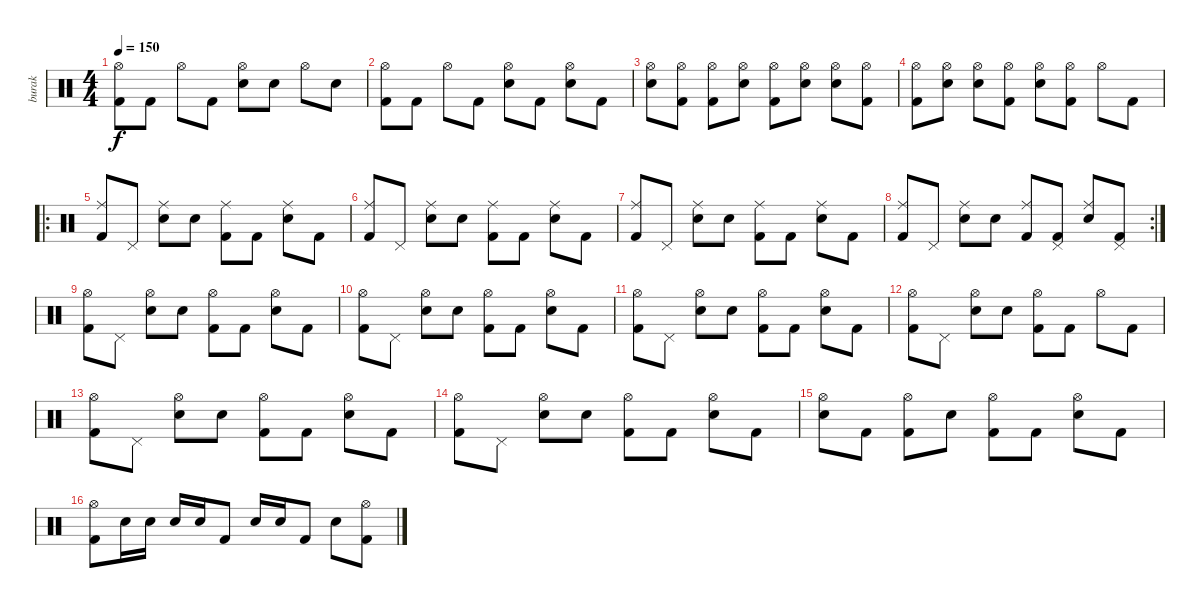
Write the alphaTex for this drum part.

\track ("burak" "burak") {instrument percussion}
\staff {score}
\articulation defaults
\ts (4 4)
\tempo 150
\clef neutral
\ks c
("Hi-Hat (open)" "Kick (hit) 2").8{dy f} "Kick (hit) 2".8 "Hi-Hat (open)".8 "Kick (hit) 2".8 ("Hi-Hat (open)" "Electric Snare (hit)").8 "Electric Snare (hit)".8 "Hi-Hat (open)".8 "Electric Snare (hit)".8 |
("Hi-Hat (open)" "Kick (hit) 2").8 "Kick (hit) 2".8 "Hi-Hat (open)".8 "Kick (hit) 2".8 ("Hi-Hat (open)" "Electric Snare (hit)").8 "Kick (hit) 2".8 ("Hi-Hat (open)" "Electric Snare (hit)").8 "Kick (hit) 2".8 |
("Hi-Hat (open)" "Electric Snare (hit)").8 ("Hi-Hat (open)" "Kick (hit) 2").8 ("Hi-Hat (open)" "Kick (hit) 2").8 ("Hi-Hat (open)" "Electric Snare (hit)").8 ("Hi-Hat (open)" "Kick (hit) 2").8 ("Hi-Hat (open)" "Electric Snare (hit)").8 ("Hi-Hat (open)" "Electric Snare (hit)").8 ("Hi-Hat (open)" "Kick (hit) 2").8 |
("Hi-Hat (open)" "Kick (hit) 2").8 ("Hi-Hat (open)" "Electric Snare (hit)").8 ("Hi-Hat (open)" "Electric Snare (hit)").8 ("Hi-Hat (open)" "Kick (hit) 2").8 ("Hi-Hat (open)" "Electric Snare (hit)").8 ("Hi-Hat (open)" "Kick (hit) 2").8 "Hi-Hat (open)".8 "Kick (hit) 2".8 |
\ro
("Ride (middle)" "Kick (hit) 2").8 "Pedal Hi-Hat (hit)".8 ("Ride (middle)" "Electric Snare (hit)").8 "Electric Snare (hit)".8 ("Ride (middle)" "Kick (hit) 2").8 "Kick (hit) 2".8 ("Ride (middle)" "Electric Snare (hit)").8 "Kick (hit) 2".8 |
("Ride (middle)" "Kick (hit) 2").8 "Pedal Hi-Hat (hit)".8 ("Ride (middle)" "Electric Snare (hit)").8 "Electric Snare (hit)".8 ("Ride (middle)" "Kick (hit) 2").8 "Kick (hit) 2".8 ("Ride (middle)" "Electric Snare (hit)").8 "Kick (hit) 2".8 |
("Ride (middle)" "Kick (hit) 2").8 "Pedal Hi-Hat (hit)".8 ("Ride (middle)" "Electric Snare (hit)").8 "Electric Snare (hit)".8 ("Ride (middle)" "Kick (hit) 2").8 "Kick (hit) 2".8 ("Ride (middle)" "Electric Snare (hit)").8 "Kick (hit) 2".8 |
\rc 2
("Ride (middle)" "Kick (hit) 2").8 "Pedal Hi-Hat (hit)".8 ("Ride (middle)" "Electric Snare (hit)").8 "Electric Snare (hit)".8 ("Ride (middle)" "Kick (hit) 2").8 ("Pedal Hi-Hat (hit)" "Kick (hit) 2").8 ("Ride (middle)" "Electric Snare (hit)").8 ("Pedal Hi-Hat (hit)" "Kick (hit) 2").8 |
("Hi-Hat (open)" "Kick (hit) 2").8 "Pedal Hi-Hat (hit)".8 ("Hi-Hat (open)" "Electric Snare (hit)").8 "Electric Snare (hit)".8 ("Hi-Hat (open)" "Kick (hit) 2").8 "Kick (hit) 2".8 ("Hi-Hat (open)" "Electric Snare (hit)").8 "Kick (hit) 2".8 |
("Hi-Hat (open)" "Kick (hit) 2").8 "Pedal Hi-Hat (hit)".8 ("Hi-Hat (open)" "Electric Snare (hit)").8 "Electric Snare (hit)".8 ("Hi-Hat (open)" "Kick (hit) 2").8 "Kick (hit) 2".8 ("Hi-Hat (open)" "Electric Snare (hit)").8 "Kick (hit) 2".8 |
("Hi-Hat (open)" "Kick (hit) 2").8 "Pedal Hi-Hat (hit)".8 ("Hi-Hat (open)" "Electric Snare (hit)").8 "Electric Snare (hit)".8 ("Hi-Hat (open)" "Kick (hit) 2").8 "Kick (hit) 2".8 ("Hi-Hat (open)" "Electric Snare (hit)").8 "Kick (hit) 2".8 |
("Hi-Hat (open)" "Kick (hit) 2").8 "Pedal Hi-Hat (hit)".8 ("Hi-Hat (open)" "Electric Snare (hit)").8 "Electric Snare (hit)".8 ("Hi-Hat (open)" "Kick (hit) 2").8 "Kick (hit) 2".8 "Hi-Hat (open)".8 "Kick (hit) 2".8 |
("Hi-Hat (open)" "Kick (hit) 2").8 "Pedal Hi-Hat (hit)".8 ("Hi-Hat (open)" "Electric Snare (hit)").8 "Electric Snare (hit)".8 ("Hi-Hat (open)" "Kick (hit) 2").8 "Kick (hit) 2".8 ("Hi-Hat (open)" "Electric Snare (hit)").8 "Kick (hit) 2".8 |
("Hi-Hat (open)" "Kick (hit) 2").8 "Pedal Hi-Hat (hit)".8 ("Hi-Hat (open)" "Electric Snare (hit)").8 "Electric Snare (hit)".8 ("Hi-Hat (open)" "Kick (hit) 2").8 "Kick (hit) 2".8 ("Hi-Hat (open)" "Electric Snare (hit)").8 "Kick (hit) 2".8 |
("Hi-Hat (open)" "Electric Snare (hit)").8 "Kick (hit) 2".8 ("Hi-Hat (open)" "Kick (hit) 2").8 "Electric Snare (hit)".8 ("Hi-Hat (open)" "Kick (hit) 2").8 "Kick (hit) 2".8 ("Hi-Hat (open)" "Electric Snare (hit)").8 "Kick (hit) 2".8 |
("Hi-Hat (open)" "Kick (hit) 2").8 "Electric Snare (hit)".16 "Electric Snare (hit)".16 "Electric Snare (hit)".16 "Electric Snare (hit)".16 "Kick (hit) 2".8 "Electric Snare (hit)".16 "Electric Snare (hit)".16 "Kick (hit) 2".8 "Electric Snare (hit)".8 ("Hi-Hat (open)" "Kick (hit) 2").8
